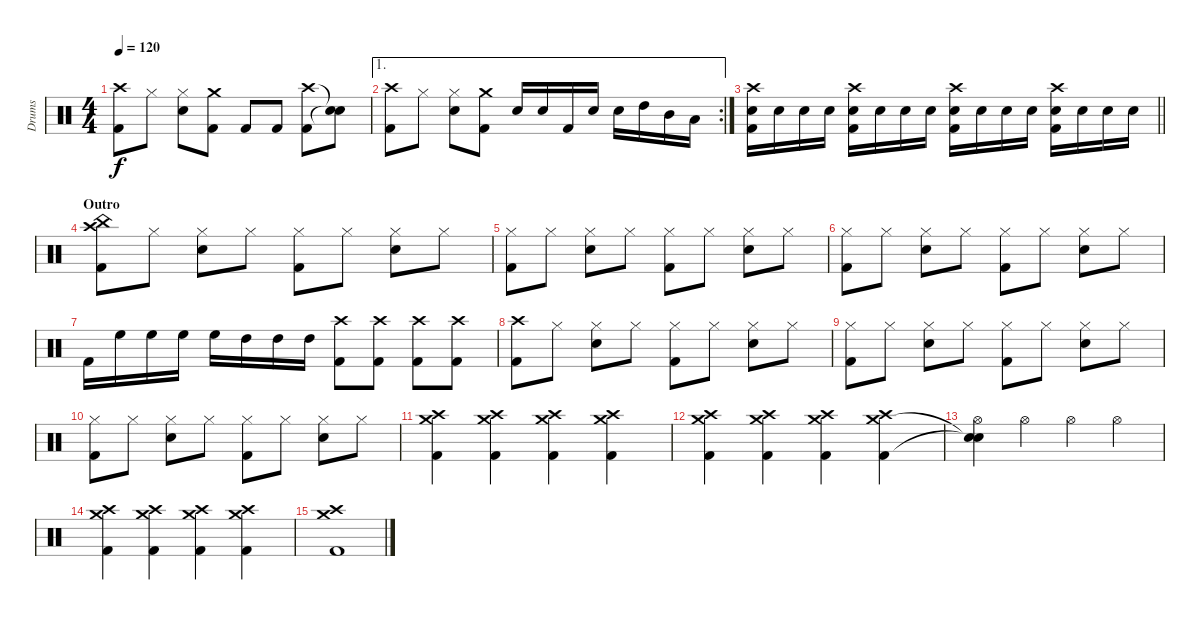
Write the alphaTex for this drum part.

\track ("Drums" "Drums") {instrument percussion}
\staff {score}
\articulation defaults
\ts (4 4)
\tempo 120
\clef neutral
\ks c
("Crash high (hit)" "Kick (hit) 2").8{dy f} "Hi-Hat (closed)".8 ("Hi-Hat (closed)" "Snare (hit) 2").8 ("Crash medium (hit)" "Kick (hit) 2").8 "Kick (hit) 2".8 "Kick (hit) 2".8 ("Crash high (hit)" "Kick (hit) 2").8 ("Snare (hit)"{t} "Snare (hit)"{t}).8 |
\ae 1
\rc 2
("Crash high (hit)" "Kick (hit) 2").8 "Hi-Hat (closed)".8 ("Hi-Hat (closed)" "Snare (hit) 2").8 ("Crash medium (hit)" "Kick (hit) 2").8 "Electric Snare (hit)".16 "Electric Snare (hit)".16 "Kick (hit) 2".16 "Electric Snare (hit)".16 "Electric Snare (hit)".16 "High Tom (hit)".16 "Mid Tom (hit)".16 "Low Tom (hit)".16 |
\barLineRight lightlight
("Crash high (hit)" "Electric Snare (hit)" "Kick (hit) 2").16 "Electric Snare (hit)".16 "Electric Snare (hit)".16 "Electric Snare (hit)".16 ("Crash high (hit)" "Electric Snare (hit)" "Kick (hit) 2").16 "Electric Snare (hit)".16 "Electric Snare (hit)".16 "Electric Snare (hit)".16 ("Crash high (hit)" "Electric Snare (hit)" "Kick (hit) 2").16 "Electric Snare (hit)".16 "Electric Snare (hit)".16 "Electric Snare (hit)".16 ("Crash high (hit)" "Electric Snare (hit)" "Kick (hit) 2").16 "Electric Snare (hit)".16 "Electric Snare (hit)".16 "Electric Snare (hit)".16 |
\section ("" "Outro")
("China (hit)" "Crash high (hit)" "Kick (hit) 2").8 "Hi-Hat (closed)".8 ("Hi-Hat (closed)" "Snare (hit) 2").8 "Hi-Hat (closed)".8 ("Hi-Hat (closed)" "Kick (hit) 2").8 "Hi-Hat (closed)".8 ("Hi-Hat (closed)" "Snare (hit) 2").8 "Hi-Hat (closed)".8 |
("Hi-Hat (closed)" "Kick (hit) 2").8 "Hi-Hat (closed)".8 ("Hi-Hat (closed)" "Snare (hit) 2").8 "Hi-Hat (closed)".8 ("Hi-Hat (closed)" "Kick (hit) 2").8 "Hi-Hat (closed)".8 ("Hi-Hat (closed)" "Snare (hit) 2").8 "Hi-Hat (closed)".8 |
("Hi-Hat (closed)" "Kick (hit) 2").8 "Hi-Hat (closed)".8 ("Hi-Hat (closed)" "Snare (hit) 2").8 "Hi-Hat (closed)".8 ("Hi-Hat (closed)" "Kick (hit) 2").8 "Hi-Hat (closed)".8 ("Hi-Hat (closed)" "Snare (hit) 2").8 "Hi-Hat (closed)".8 |
"Kick (hit) 2".16 "High Floor Tom (hit)".16 "High Floor Tom (hit)".16 "High Floor Tom (hit)".16 "High Floor Tom (hit)".16 "High Tom (hit)".16 "High Tom (hit)".16 "High Tom (hit)".16 ("Crash high (hit)" "Kick (hit) 2").8 ("Crash high (hit)" "Kick (hit) 2").8 ("Crash high (hit)" "Kick (hit) 2").8 ("Crash high (hit)" "Kick (hit) 2").8 |
("Crash high (hit)" "Kick (hit) 2").8 "Hi-Hat (closed)".8 ("Hi-Hat (closed)" "Snare (hit) 2").8 "Hi-Hat (closed)".8 ("Hi-Hat (closed)" "Kick (hit) 2").8 "Hi-Hat (closed)".8 ("Hi-Hat (closed)" "Snare (hit) 2").8 "Hi-Hat (closed)".8 |
("Hi-Hat (closed)" "Kick (hit) 2").8 "Hi-Hat (closed)".8 ("Hi-Hat (closed)" "Snare (hit) 2").8 "Hi-Hat (closed)".8 ("Hi-Hat (closed)" "Kick (hit) 2").8 "Hi-Hat (closed)".8 ("Hi-Hat (closed)" "Snare (hit) 2").8 "Hi-Hat (closed)".8 |
("Hi-Hat (closed)" "Kick (hit) 2").8 "Hi-Hat (closed)".8 ("Hi-Hat (closed)" "Snare (hit) 2").8 "Hi-Hat (closed)".8 ("Hi-Hat (closed)" "Kick (hit) 2").8 "Hi-Hat (closed)".8 ("Hi-Hat (closed)" "Snare (hit) 2").8 "Hi-Hat (closed)".8 |
("Crash medium (hit)" "Crash high (hit)" "Kick (hit) 2").4 ("Crash medium (hit)" "Crash high (hit)" "Kick (hit) 2").4 ("Crash medium (hit)" "Crash high (hit)" "Kick (hit) 2").4 ("Crash medium (hit)" "Crash high (hit)" "Kick (hit) 2").4 |
("Crash medium (hit)" "Crash high (hit)" "Kick (hit) 2").4 ("Crash medium (hit)" "Crash high (hit)" "Kick (hit) 2").4 ("Crash medium (hit)" "Crash high (hit)" "Kick (hit) 2").4 ("Crash medium (hit)" "Crash high (hit)" "Kick (hit) 2").4 |
("Snare (hit)"{t} "Hi-Hat (open)" "Snare (hit)"{t}).4 "Hi-Hat (open)".4 "Hi-Hat (open)".4 "Hi-Hat (open)".4 |
("Crash high (hit)" "Crash medium (hit)" "Kick (hit) 2").4 ("Crash high (hit)" "Crash medium (hit)" "Kick (hit) 2").4 ("Crash high (hit)" "Crash medium (hit)" "Kick (hit) 2").4 ("Crash high (hit)" "Crash medium (hit)" "Kick (hit) 2").4 |
("Crash high (hit)" "Crash medium (hit)" "Kick (hit) 2").1
